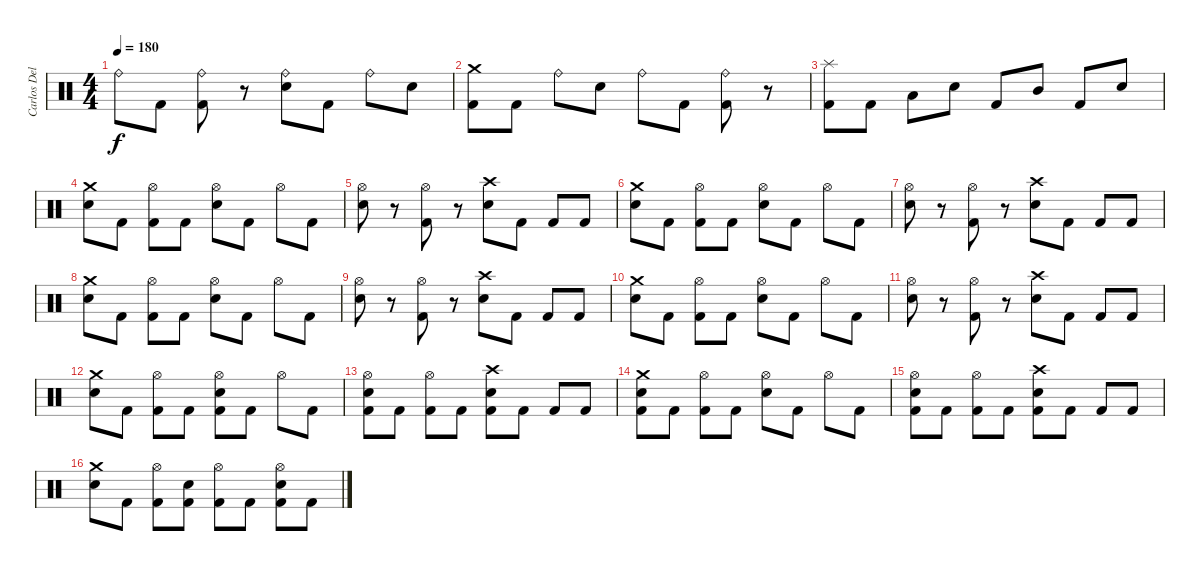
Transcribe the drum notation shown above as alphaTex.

\track ("Carlos Delgado" "Carlos Del") {instrument percussion}
\staff {score}
\articulation defaults
\ts (4 4)
\tempo 180
\clef neutral
\ks c "Ride (bell)".8{dy f} "Kick (hit) 2".8
("Ride (bell)" "Kick (hit) 2").8 r.8 ("Ride (bell)" "Electric Snare (hit)").8 "Kick (hit) 2".8 "Ride (bell)".8 "Electric Snare (hit)".8 |
("Kick (hit) 2" "Crash medium (hit)").8 "Kick (hit) 2".8 "Ride (bell)".8 "Electric Snare (hit)".8 "Ride (bell)".8 "Kick (hit) 2".8 ("Kick (hit) 2" "Ride (bell)").8 r.8 |
("Splash (hit)" "Kick (hit) 2").8 "Kick (hit) 2".8 "Low Tom (hit)".8 "Electric Snare (hit)".8 "Kick (hit) 2".8 "Mid Tom (hit)".8 "Kick (hit) 2".8 "Electric Snare (hit)".8 |
("Crash medium (hit)" "Electric Snare (hit)").8 "Kick (hit) 2".8 ("Hi-Hat (open)" "Kick (hit) 2").8 "Kick (hit) 2".8 ("Hi-Hat (open)" "Electric Snare (hit)").8 "Kick (hit) 2".8 "Hi-Hat (open)".8 "Kick (hit) 2".8 |
("Hi-Hat (open)" "Electric Snare (hit)").8 r.8 ("Hi-Hat (open)" "Kick (hit) 2").8 r.8 ("Crash high (hit)" "Electric Snare (hit)").8 "Kick (hit) 2".8 "Kick (hit) 2".8 "Kick (hit) 2".8 |
("Crash medium (hit)" "Electric Snare (hit)").8 "Kick (hit) 2".8 ("Hi-Hat (open)" "Kick (hit) 2").8 "Kick (hit) 2".8 ("Hi-Hat (open)" "Electric Snare (hit)").8 "Kick (hit) 2".8 "Hi-Hat (open)".8 "Kick (hit) 2".8 |
("Hi-Hat (open)" "Electric Snare (hit)").8 r.8 ("Hi-Hat (open)" "Kick (hit) 2").8 r.8 ("Crash high (hit)" "Electric Snare (hit)").8 "Kick (hit) 2".8 "Kick (hit) 2".8 "Kick (hit) 2".8 |
("Crash medium (hit)" "Electric Snare (hit)").8 "Kick (hit) 2".8 ("Hi-Hat (open)" "Kick (hit) 2").8 "Kick (hit) 2".8 ("Hi-Hat (open)" "Electric Snare (hit)").8 "Kick (hit) 2".8 "Hi-Hat (open)".8 "Kick (hit) 2".8 |
("Hi-Hat (open)" "Electric Snare (hit)").8 r.8 ("Hi-Hat (open)" "Kick (hit) 2").8 r.8 ("Crash high (hit)" "Electric Snare (hit)").8 "Kick (hit) 2".8 "Kick (hit) 2".8 "Kick (hit) 2".8 |
("Crash medium (hit)" "Electric Snare (hit)").8 "Kick (hit) 2".8 ("Hi-Hat (open)" "Kick (hit) 2").8 "Kick (hit) 2".8 ("Hi-Hat (open)" "Electric Snare (hit)").8 "Kick (hit) 2".8 "Hi-Hat (open)".8 "Kick (hit) 2".8 |
("Hi-Hat (open)" "Electric Snare (hit)").8 r.8 ("Hi-Hat (open)" "Kick (hit) 2").8 r.8 ("Crash high (hit)" "Electric Snare (hit)").8 "Kick (hit) 2".8 "Kick (hit) 2".8 "Kick (hit) 2".8 |
("Crash medium (hit)" "Electric Snare (hit)").8 "Kick (hit) 2".8 ("Hi-Hat (open)" "Kick (hit) 2").8 "Kick (hit) 2".8 ("Kick (hit) 2" "Hi-Hat (open)" "Electric Snare (hit)").8 "Kick (hit) 2".8 "Hi-Hat (open)".8 "Kick (hit) 2".8 |
("Kick (hit) 2" "Hi-Hat (open)" "Electric Snare (hit)").8 "Kick (hit) 2".8 ("Hi-Hat (open)" "Kick (hit) 2").8 "Kick (hit) 2".8 ("Kick (hit) 2" "Crash high (hit)" "Electric Snare (hit)").8 "Kick (hit) 2".8 "Kick (hit) 2".8 "Kick (hit) 2".8 |
("Kick (hit) 2" "Crash medium (hit)" "Electric Snare (hit)").8 "Kick (hit) 2".8 ("Hi-Hat (open)" "Kick (hit) 2").8 "Kick (hit) 2".8 ("Hi-Hat (open)" "Electric Snare (hit)").8 "Kick (hit) 2".8 "Hi-Hat (open)".8 "Kick (hit) 2".8 |
("Kick (hit) 2" "Hi-Hat (open)" "Electric Snare (hit)").8 "Kick (hit) 2".8 ("Hi-Hat (open)" "Kick (hit) 2").8 "Kick (hit) 2".8 ("Crash high (hit)" "Electric Snare (hit)" "Kick (hit) 2").8 "Kick (hit) 2".8 "Kick (hit) 2".8 "Kick (hit) 2".8 |
("Crash medium (hit)" "Electric Snare (hit)").8 "Kick (hit) 2".8 ("Hi-Hat (open)" "Kick (hit) 2").8 ("Kick (hit) 2" "Electric Snare (hit)").8 ("Kick (hit) 2" "Hi-Hat (open)").8 "Kick (hit) 2".8 ("Kick (hit) 2" "Hi-Hat (open)" "Electric Snare (hit)").8 "Kick (hit) 2".8
